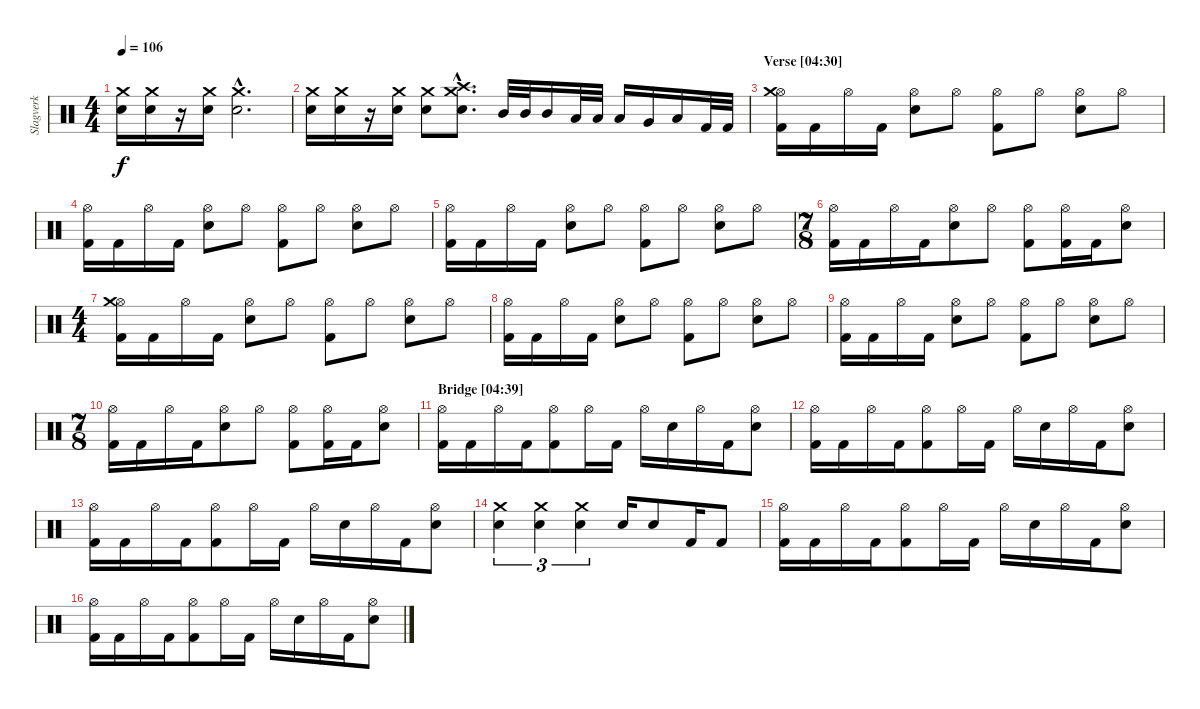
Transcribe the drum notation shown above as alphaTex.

\track ("Slagverk" "Slagverk") {instrument percussion}
\staff {score}
\articulation defaults
\ts (4 4)
\tempo 106
\clef neutral
\ks c
("Crash medium (hit)" "Electric Snare (hit)").16{dy f} ("Crash medium (hit)" "Electric Snare (hit)").16 r.16 ("Crash medium (hit)" "Electric Snare (hit)").16 ("Crash medium (hit)"{hac} "Electric Snare (hit)"{hac}).2{d} |
("Crash medium (hit)" "Electric Snare (hit)").16 ("Crash medium (hit)" "Electric Snare (hit)").16 r.16 ("Crash medium (hit)" "Electric Snare (hit)").16 ("Crash medium (hit)" "Electric Snare (hit)").8 ("Crash high (hit)"{hac} "Crash medium (hit)"{hac} "Electric Snare (hit)"{hac}).8{d} "Mid Tom (hit)".32 "Mid Tom (hit)".32 "Mid Tom (hit)".16 "Low Tom (hit)".32 "Low Tom (hit)".32 "Low Tom (hit)".16 "Very Low Tom (hit)".16 "Low Floor Tom (hit)".16 "Kick (hit) 2".32 "Kick (hit) 2".32 |
\section ("" "Verse [04:30]")
("Hi-Hat (open)" "Crash medium (hit)" "Kick (hit) 2").16 "Kick (hit) 2".16 "Hi-Hat (open)".16 "Kick (hit) 2".16 ("Hi-Hat (open)" "Electric Snare (hit)").8 "Hi-Hat (open)".8 ("Hi-Hat (open)" "Kick (hit) 2").8 "Hi-Hat (open)".8 ("Hi-Hat (open)" "Electric Snare (hit)").8 "Hi-Hat (open)".8 |
("Hi-Hat (open)" "Kick (hit) 2").16 "Kick (hit) 2".16 "Hi-Hat (open)".16 "Kick (hit) 2".16 ("Hi-Hat (open)" "Electric Snare (hit)").8 "Hi-Hat (open)".8 ("Hi-Hat (open)" "Kick (hit) 2").8 "Hi-Hat (open)".8 ("Hi-Hat (open)" "Electric Snare (hit)").8 "Hi-Hat (open)".8 |
("Hi-Hat (open)" "Kick (hit) 2").16 "Kick (hit) 2".16 "Hi-Hat (open)".16 "Kick (hit) 2".16 ("Hi-Hat (open)" "Electric Snare (hit)").8 "Hi-Hat (open)".8 ("Hi-Hat (open)" "Kick (hit) 2").8 "Hi-Hat (open)".8 ("Hi-Hat (open)" "Electric Snare (hit)").8 "Hi-Hat (open)".8 |
\ts (7 8)
("Hi-Hat (open)" "Kick (hit) 2").16 "Kick (hit) 2".16 "Hi-Hat (open)".16 "Kick (hit) 2".16 ("Hi-Hat (open)" "Electric Snare (hit)").8 "Hi-Hat (open)".8 ("Hi-Hat (open)" "Kick (hit) 2").8 ("Hi-Hat (open)" "Kick (hit) 2").16 "Kick (hit) 2".16 ("Hi-Hat (open)" "Electric Snare (hit)").8 |
\ts (4 4)
\section ("" "")
("Hi-Hat (open)" "Crash medium (hit)" "Kick (hit) 2").16 "Kick (hit) 2".16 "Hi-Hat (open)".16 "Kick (hit) 2".16 ("Hi-Hat (open)" "Electric Snare (hit)").8 "Hi-Hat (open)".8 ("Hi-Hat (open)" "Kick (hit) 2").8 "Hi-Hat (open)".8 ("Hi-Hat (open)" "Electric Snare (hit)").8 "Hi-Hat (open)".8 |
("Hi-Hat (open)" "Kick (hit) 2").16 "Kick (hit) 2".16 "Hi-Hat (open)".16 "Kick (hit) 2".16 ("Hi-Hat (open)" "Electric Snare (hit)").8 "Hi-Hat (open)".8 ("Hi-Hat (open)" "Kick (hit) 2").8 "Hi-Hat (open)".8 ("Hi-Hat (open)" "Electric Snare (hit)").8 "Hi-Hat (open)".8 |
("Hi-Hat (open)" "Kick (hit) 2").16 "Kick (hit) 2".16 "Hi-Hat (open)".16 "Kick (hit) 2".16 ("Hi-Hat (open)" "Electric Snare (hit)").8 "Hi-Hat (open)".8 ("Hi-Hat (open)" "Kick (hit) 2").8 "Hi-Hat (open)".8 ("Hi-Hat (open)" "Electric Snare (hit)").8 "Hi-Hat (open)".8 |
\ts (7 8)
("Hi-Hat (open)" "Kick (hit) 2").16 "Kick (hit) 2".16 "Hi-Hat (open)".16 "Kick (hit) 2".16 ("Hi-Hat (open)" "Electric Snare (hit)").8 "Hi-Hat (open)".8 ("Hi-Hat (open)" "Kick (hit) 2").8 ("Hi-Hat (open)" "Kick (hit) 2").16 "Kick (hit) 2".16 ("Hi-Hat (open)" "Electric Snare (hit)").8 |
\section ("" "Bridge [04:39]")
("Hi-Hat (open)" "Kick (hit) 2").16 "Kick (hit) 2".16 "Hi-Hat (open)".16 "Kick (hit) 2".16 ("Hi-Hat (open)" "Kick (hit) 2").8 "Hi-Hat (open)".16 "Kick (hit) 2".16 "Hi-Hat (open)".16 "Electric Snare (hit)".16 "Hi-Hat (open)".16 "Kick (hit) 2".16 ("Hi-Hat (open)" "Electric Snare (hit)").8 |
("Hi-Hat (open)" "Kick (hit) 2").16 "Kick (hit) 2".16 "Hi-Hat (open)".16 "Kick (hit) 2".16 ("Hi-Hat (open)" "Kick (hit) 2").8 "Hi-Hat (open)".16 "Kick (hit) 2".16 "Hi-Hat (open)".16 "Electric Snare (hit)".16 "Hi-Hat (open)".16 "Kick (hit) 2".16 ("Hi-Hat (open)" "Electric Snare (hit)").8 |
("Hi-Hat (open)" "Kick (hit) 2").16 "Kick (hit) 2".16 "Hi-Hat (open)".16 "Kick (hit) 2".16 ("Hi-Hat (open)" "Kick (hit) 2").8 "Hi-Hat (open)".16 "Kick (hit) 2".16 "Hi-Hat (open)".16 "Electric Snare (hit)".16 "Hi-Hat (open)".16 "Kick (hit) 2".16 ("Hi-Hat (open)" "Electric Snare (hit)").8 |
("Crash medium (hit)" "Electric Snare (hit)").4{tu (3 2)} ("Crash medium (hit)" "Electric Snare (hit)").4{tu (3 2)} ("Crash medium (hit)" "Electric Snare (hit)").4{tu (3 2)} "Electric Snare (hit)".16 "Electric Snare (hit)".8 "Kick (hit) 2".16 "Kick (hit) 2".8 |
("Hi-Hat (open)" "Kick (hit) 2").16 "Kick (hit) 2".16 "Hi-Hat (open)".16 "Kick (hit) 2".16 ("Hi-Hat (open)" "Kick (hit) 2").8 "Hi-Hat (open)".16 "Kick (hit) 2".16 "Hi-Hat (open)".16 "Electric Snare (hit)".16 "Hi-Hat (open)".16 "Kick (hit) 2".16 ("Hi-Hat (open)" "Electric Snare (hit)").8 |
("Hi-Hat (open)" "Kick (hit) 2").16 "Kick (hit) 2".16 "Hi-Hat (open)".16 "Kick (hit) 2".16 ("Hi-Hat (open)" "Kick (hit) 2").8 "Hi-Hat (open)".16 "Kick (hit) 2".16 "Hi-Hat (open)".16 "Electric Snare (hit)".16 "Hi-Hat (open)".16 "Kick (hit) 2".16 ("Hi-Hat (open)" "Electric Snare (hit)").8
